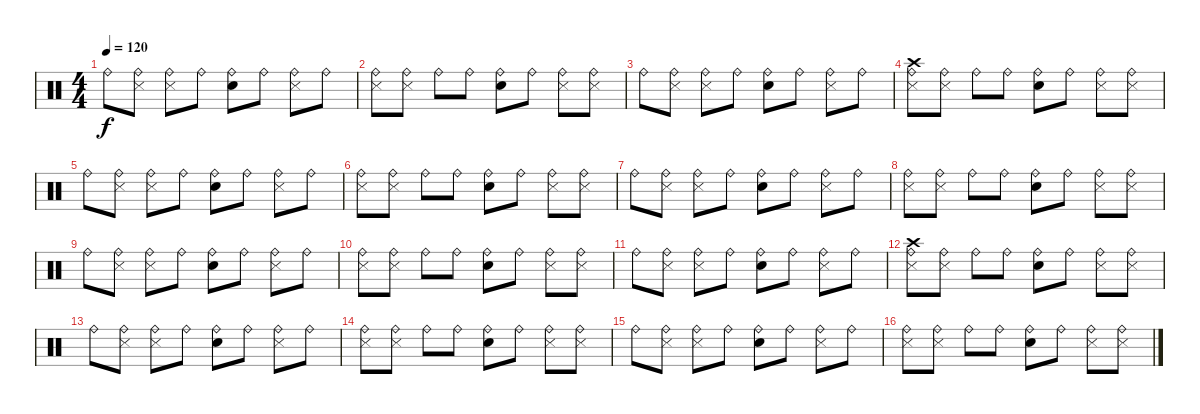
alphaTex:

\track "" {instrument percussion}
\staff {score}
\articulation defaults
\ts (4 4)
\tempo 120
\clef neutral
\ks c "Ride (bell)".8{dy f}
("Metronome (hit)" "Ride (bell)").8 ("Metronome (hit)" "Ride (bell)").8 "Ride (bell)".8 ("Electric Snare (hit)" "Ride (bell)").8 "Ride (bell)".8 ("Metronome (hit)" "Ride (bell)").8 "Ride (bell)".8 |
("Metronome (hit)" "Ride (bell)").8 ("Metronome (hit)" "Ride (bell)").8 "Ride (bell)".8 "Ride (bell)".8 ("Electric Snare (hit)" "Ride (bell)").8 "Ride (bell)".8 ("Metronome (hit)" "Ride (bell)").8 ("Metronome (hit)" "Ride (bell)").8 |
"Ride (bell)".8 ("Metronome (hit)" "Ride (bell)").8 ("Metronome (hit)" "Ride (bell)").8 "Ride (bell)".8 ("Electric Snare (hit)" "Ride (bell)").8 "Ride (bell)".8 ("Metronome (hit)" "Ride (bell)").8 "Ride (bell)".8 |
("Metronome (hit)" "Crash high (hit)" "Ride (bell)").8 ("Metronome (hit)" "Ride (bell)").8 "Ride (bell)".8 "Ride (bell)".8 ("Electric Snare (hit)" "Ride (bell)").8 "Ride (bell)".8 ("Metronome (hit)" "Ride (bell)").8 ("Metronome (hit)" "Ride (bell)").8 |
"Ride (bell)".8 ("Metronome (hit)" "Ride (bell)").8 ("Metronome (hit)" "Ride (bell)").8 "Ride (bell)".8 ("Electric Snare (hit)" "Ride (bell)").8 "Ride (bell)".8 ("Metronome (hit)" "Ride (bell)").8 "Ride (bell)".8 |
("Metronome (hit)" "Ride (bell)").8 ("Metronome (hit)" "Ride (bell)").8 "Ride (bell)".8 "Ride (bell)".8 ("Electric Snare (hit)" "Ride (bell)").8 "Ride (bell)".8 ("Metronome (hit)" "Ride (bell)").8 ("Metronome (hit)" "Ride (bell)").8 |
"Ride (bell)".8 ("Metronome (hit)" "Ride (bell)").8 ("Metronome (hit)" "Ride (bell)").8 "Ride (bell)".8 ("Electric Snare (hit)" "Ride (bell)").8 "Ride (bell)".8 ("Metronome (hit)" "Ride (bell)").8 "Ride (bell)".8 |
("Metronome (hit)" "Ride (bell)").8 ("Metronome (hit)" "Ride (bell)").8 "Ride (bell)".8 "Ride (bell)".8 ("Electric Snare (hit)" "Ride (bell)").8 "Ride (bell)".8 ("Metronome (hit)" "Ride (bell)").8 ("Metronome (hit)" "Ride (bell)").8 |
"Ride (bell)".8 ("Metronome (hit)" "Ride (bell)").8 ("Metronome (hit)" "Ride (bell)").8 "Ride (bell)".8 ("Electric Snare (hit)" "Ride (bell)").8 "Ride (bell)".8 ("Metronome (hit)" "Ride (bell)").8 "Ride (bell)".8 |
("Metronome (hit)" "Ride (bell)").8 ("Metronome (hit)" "Ride (bell)").8 "Ride (bell)".8 "Ride (bell)".8 ("Electric Snare (hit)" "Ride (bell)").8 "Ride (bell)".8 ("Metronome (hit)" "Ride (bell)").8 ("Metronome (hit)" "Ride (bell)").8 |
"Ride (bell)".8 ("Metronome (hit)" "Ride (bell)").8 ("Metronome (hit)" "Ride (bell)").8 "Ride (bell)".8 ("Electric Snare (hit)" "Ride (bell)").8 "Ride (bell)".8 ("Metronome (hit)" "Ride (bell)").8 "Ride (bell)".8 |
("Metronome (hit)" "Crash high (hit)" "Ride (bell)").8 ("Metronome (hit)" "Ride (bell)").8 "Ride (bell)".8 "Ride (bell)".8 ("Electric Snare (hit)" "Ride (bell)").8 "Ride (bell)".8 ("Metronome (hit)" "Ride (bell)").8 ("Metronome (hit)" "Ride (bell)").8 |
"Ride (bell)".8 ("Metronome (hit)" "Ride (bell)").8 ("Metronome (hit)" "Ride (bell)").8 "Ride (bell)".8 ("Electric Snare (hit)" "Ride (bell)").8 "Ride (bell)".8 ("Metronome (hit)" "Ride (bell)").8 "Ride (bell)".8 |
("Metronome (hit)" "Ride (bell)").8 ("Metronome (hit)" "Ride (bell)").8 "Ride (bell)".8 "Ride (bell)".8 ("Electric Snare (hit)" "Ride (bell)").8 "Ride (bell)".8 ("Metronome (hit)" "Ride (bell)").8 ("Metronome (hit)" "Ride (bell)").8 |
"Ride (bell)".8 ("Metronome (hit)" "Ride (bell)").8 ("Metronome (hit)" "Ride (bell)").8 "Ride (bell)".8 ("Electric Snare (hit)" "Ride (bell)").8 "Ride (bell)".8 ("Metronome (hit)" "Ride (bell)").8 "Ride (bell)".8 |
("Metronome (hit)" "Ride (bell)").8 ("Metronome (hit)" "Ride (bell)").8 "Ride (bell)".8 "Ride (bell)".8 ("Electric Snare (hit)" "Ride (bell)").8 "Ride (bell)".8 ("Metronome (hit)" "Ride (bell)").8 ("Metronome (hit)" "Ride (bell)").8
